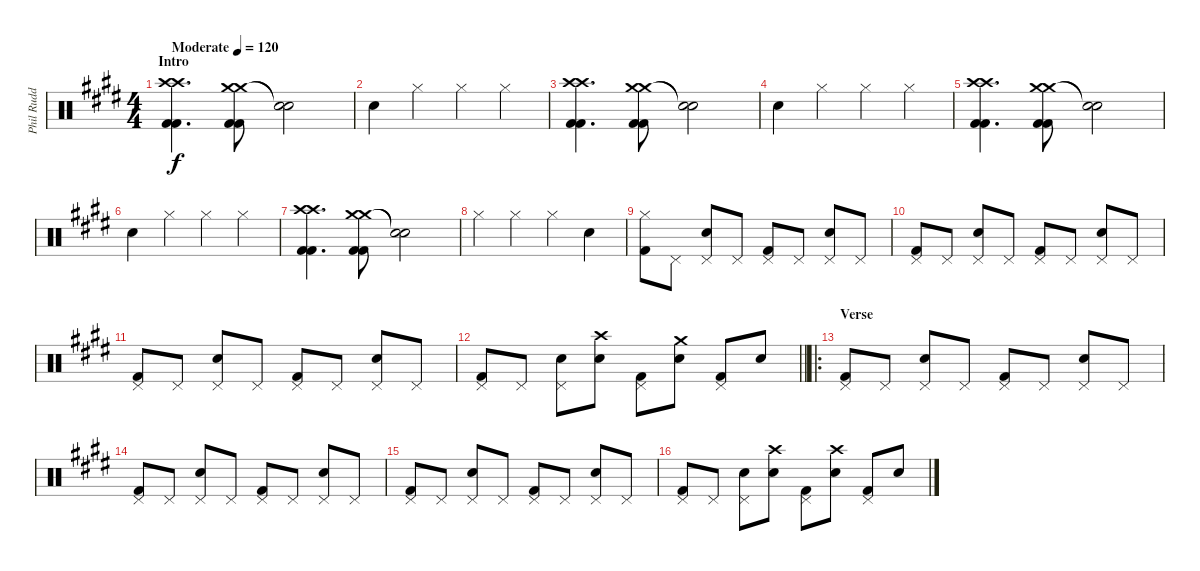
\track ("Phil Rudd (Drums)" "Phil Rudd ") {instrument percussion}
\staff {score}
\articulation defaults
\ts (4 4)
\section ("" "Intro")
\tempo (120 "Moderate")
\clef neutral
\ks e
("Crash high (hit)" "Crash high (hit)" "Kick (hit) 2" "Kick (hit) 2").4{d dy f} ("Crash medium (hit)" "Crash medium (hit)" "Kick (hit) 2" "Kick (hit) 2").8 ("Snare (hit)"{t} "Snare (hit)"{t}).2 |
"Snare (hit) 2".4 "Hi-Hat (closed)".4 "Hi-Hat (closed)".4 "Hi-Hat (closed)".4 |
("Crash high (hit)" "Crash high (hit)" "Kick (hit) 2" "Kick (hit) 2").4{d} ("Crash medium (hit)" "Crash medium (hit)" "Kick (hit) 2" "Kick (hit) 2").8 ("Snare (hit)"{t} "Snare (hit)"{t}).2 |
"Snare (hit) 2".4 "Hi-Hat (closed)".4 "Hi-Hat (closed)".4 "Hi-Hat (closed)".4 |
("Crash high (hit)" "Crash high (hit)" "Kick (hit) 2" "Kick (hit) 2").4{d} ("Crash medium (hit)" "Crash medium (hit)" "Kick (hit) 2" "Kick (hit) 2").8 ("Snare (hit)"{t} "Snare (hit)"{t}).2 |
"Snare (hit) 2".4 "Hi-Hat (closed)".4 "Hi-Hat (closed)".4 "Hi-Hat (closed)".4 |
("Crash high (hit)" "Crash high (hit)" "Kick (hit) 2" "Kick (hit) 2").4{d} ("Crash medium (hit)" "Crash medium (hit)" "Kick (hit) 2" "Kick (hit) 2").8 ("Snare (hit)"{t} "Snare (hit)"{t}).2 |
"Hi-Hat (closed)".4 "Hi-Hat (closed)".4 "Hi-Hat (closed)".4 "Snare (hit) 2".4 |
("Hi-Hat (closed)" "Kick (hit) 2").8 "Pedal Hi-Hat (hit)".8 ("Pedal Hi-Hat (hit)" "Snare (hit) 2").8 "Pedal Hi-Hat (hit)".8 ("Pedal Hi-Hat (hit)" "Kick (hit) 2").8 "Pedal Hi-Hat (hit)".8 ("Pedal Hi-Hat (hit)" "Snare (hit) 2").8 "Pedal Hi-Hat (hit)".8 |
("Pedal Hi-Hat (hit)" "Kick (hit) 2").8 "Pedal Hi-Hat (hit)".8 ("Pedal Hi-Hat (hit)" "Snare (hit) 2").8 "Pedal Hi-Hat (hit)".8 ("Pedal Hi-Hat (hit)" "Kick (hit) 2").8 "Pedal Hi-Hat (hit)".8 ("Pedal Hi-Hat (hit)" "Snare (hit) 2").8 "Pedal Hi-Hat (hit)".8 |
("Pedal Hi-Hat (hit)" "Kick (hit) 2").8 "Pedal Hi-Hat (hit)".8 ("Pedal Hi-Hat (hit)" "Snare (hit) 2").8 "Pedal Hi-Hat (hit)".8 ("Pedal Hi-Hat (hit)" "Kick (hit) 2").8 "Pedal Hi-Hat (hit)".8 ("Pedal Hi-Hat (hit)" "Snare (hit) 2").8 "Pedal Hi-Hat (hit)".8 |
\barLineRight lightlight
("Pedal Hi-Hat (hit)" "Kick (hit) 2").8 "Pedal Hi-Hat (hit)".8 ("Pedal Hi-Hat (hit)" "Snare (hit) 2").8 ("Crash high (hit)" "Snare (hit) 2").8 ("Pedal Hi-Hat (hit)" "Kick (hit) 2").8 ("Crash medium (hit)" "Snare (hit) 2").8 ("Pedal Hi-Hat (hit)" "Kick (hit) 2").8 "Snare (hit) 2".8 |
\ro
\section ("" "Verse")
("Pedal Hi-Hat (hit)" "Kick (hit) 2").8 "Pedal Hi-Hat (hit)".8 ("Pedal Hi-Hat (hit)" "Snare (hit) 2").8 "Pedal Hi-Hat (hit)".8 ("Pedal Hi-Hat (hit)" "Kick (hit) 2").8 "Pedal Hi-Hat (hit)".8 ("Pedal Hi-Hat (hit)" "Snare (hit) 2").8 "Pedal Hi-Hat (hit)".8 |
("Pedal Hi-Hat (hit)" "Kick (hit) 2").8 "Pedal Hi-Hat (hit)".8 ("Pedal Hi-Hat (hit)" "Snare (hit) 2").8 "Pedal Hi-Hat (hit)".8 ("Pedal Hi-Hat (hit)" "Kick (hit) 2").8 "Pedal Hi-Hat (hit)".8 ("Pedal Hi-Hat (hit)" "Snare (hit) 2").8 "Pedal Hi-Hat (hit)".8 |
("Pedal Hi-Hat (hit)" "Kick (hit) 2").8 "Pedal Hi-Hat (hit)".8 ("Pedal Hi-Hat (hit)" "Snare (hit) 2").8 "Pedal Hi-Hat (hit)".8 ("Pedal Hi-Hat (hit)" "Kick (hit) 2").8 "Pedal Hi-Hat (hit)".8 ("Pedal Hi-Hat (hit)" "Snare (hit) 2").8 "Pedal Hi-Hat (hit)".8 |
("Pedal Hi-Hat (hit)" "Kick (hit) 2").8 "Pedal Hi-Hat (hit)".8 ("Pedal Hi-Hat (hit)" "Snare (hit) 2").8 ("Crash high (hit)" "Snare (hit) 2").8 ("Pedal Hi-Hat (hit)" "Kick (hit) 2").8 ("Crash high (hit)" "Snare (hit) 2").8 ("Pedal Hi-Hat (hit)" "Kick (hit) 2").8 "Snare (hit) 2".8
